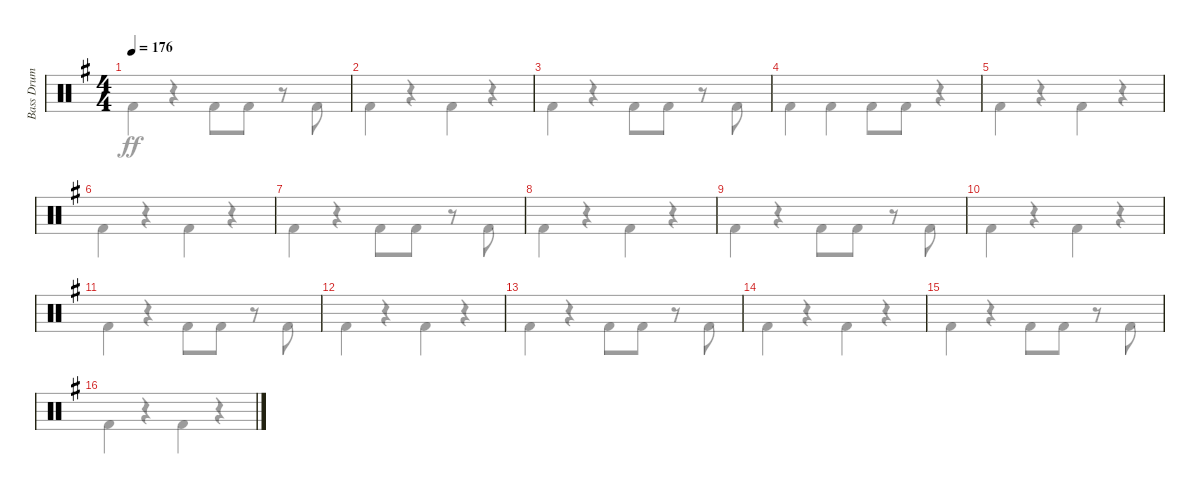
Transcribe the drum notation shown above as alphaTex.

\track ("Bass Drum" "Bass Drum") {instrument percussion}
\staff {score}
\articulation defaults
\voice
\ts (4 4)
\tempo 176
\clef neutral
\ks eminor
|
|
|
|
|
|
|
|
|
|
|
|
|
|
|
\voice
\clef neutral
\ks eminor "Kick (hit) 2".4{dy ff}
r.4 "Kick (hit) 2".8 "Kick (hit) 2".8 r.8 "Kick (hit) 2".8 |
"Kick (hit) 2".4 r.4 "Kick (hit) 2".4 r.4 |
"Kick (hit) 2".4 r.4 "Kick (hit) 2".8 "Kick (hit) 2".8 r.8 "Kick (hit) 2".8 |
"Kick (hit) 2".4 "Kick (hit) 2".4 "Kick (hit) 2".8 "Kick (hit) 2".8 r.4 |
"Kick (hit) 2".4 r.4 "Kick (hit) 2".4 r.4 |
"Kick (hit) 2".4 r.4 "Kick (hit) 2".4 r.4 |
"Kick (hit) 2".4 r.4 "Kick (hit) 2".8 "Kick (hit) 2".8 r.8 "Kick (hit) 2".8 |
"Kick (hit) 2".4 r.4 "Kick (hit) 2".4 r.4 |
"Kick (hit) 2".4 r.4 "Kick (hit) 2".8 "Kick (hit) 2".8 r.8 "Kick (hit) 2".8 |
"Kick (hit) 2".4 r.4 "Kick (hit) 2".4 r.4 |
"Kick (hit) 2".4 r.4 "Kick (hit) 2".8 "Kick (hit) 2".8 r.8 "Kick (hit) 2".8 |
"Kick (hit) 2".4 r.4 "Kick (hit) 2".4 r.4 |
"Kick (hit) 2".4 r.4 "Kick (hit) 2".8 "Kick (hit) 2".8 r.8 "Kick (hit) 2".8 |
"Kick (hit) 2".4 r.4 "Kick (hit) 2".4 r.4 |
"Kick (hit) 2".4 r.4 "Kick (hit) 2".8 "Kick (hit) 2".8 r.8 "Kick (hit) 2".8 |
"Kick (hit) 2".4 r.4 "Kick (hit) 2".4 r.4
